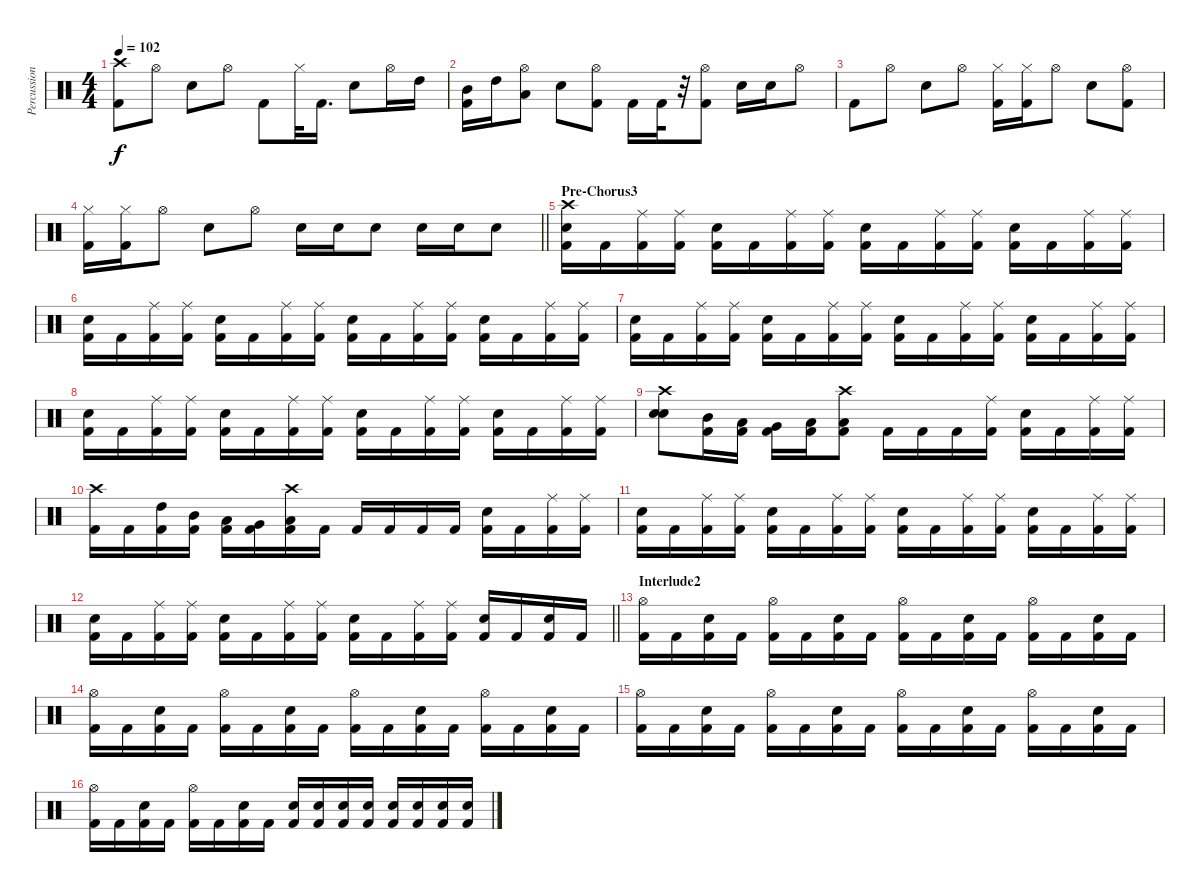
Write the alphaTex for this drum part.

\track ("Percussion" "Percussion") {instrument percussion}
\staff {score}
\articulation defaults
\ts (4 4)
\tempo 102
\clef neutral
\ks c
("Crash high (hit)" "Kick (hit) 2").8{dy f} "Hi-Hat (open)".8 "Snare (hit) 2".8 "Hi-Hat (open)".8 "Kick (hit) 2".8 "Hi-Hat (closed)".32 "Kick (hit) 2".16{d} "Snare (hit) 2".8 "Hi-Hat (open)".16 "High Tom (hit)".16 |
("Mid Tom (hit)" "Kick (hit) 2").16 "High Tom (hit)".16 ("Hi-Hat (open)" "Low Tom (hit)").8 "Snare (hit) 2".8 ("Hi-Hat (open)" "Kick (hit) 2").8 "Kick (hit) 2".16 "Kick (hit) 2".32 r.32 ("Hi-Hat (open)" "Kick (hit) 2").8 "Snare (hit) 2".16 "Snare (hit) 2".16 "Hi-Hat (open)".8 |
"Kick (hit) 2".8 "Hi-Hat (open)".8 "Snare (hit) 2".8 "Hi-Hat (open)".8 ("Hi-Hat (closed)" "Kick (hit) 2").16 ("Hi-Hat (closed)" "Kick (hit) 2").16 "Hi-Hat (open)".8 "Snare (hit) 2".8 ("Hi-Hat (open)" "Kick (hit) 2").8 |
\barLineRight lightlight
("Hi-Hat (closed)" "Kick (hit) 2").16 ("Hi-Hat (closed)" "Kick (hit) 2").16 "Hi-Hat (open)".8 "Snare (hit) 2".8 "Hi-Hat (open)".8 "Snare (hit) 2".16 "Snare (hit) 2".16 "Snare (hit) 2".8 "Snare (hit) 2".16 "Snare (hit) 2".16 "Snare (hit) 2".8 |
\section ("" "Pre-Chorus3")
("Crash high (hit)" "Snare (hit) 2" "Kick (hit) 2").16 "Kick (hit) 2".16 ("Ride (middle)" "Kick (hit) 2").16 ("Ride (middle)" "Kick (hit) 2").16 ("Snare (hit) 2" "Kick (hit) 2").16 "Kick (hit) 2".16 ("Ride (middle)" "Kick (hit) 2").16 ("Ride (middle)" "Kick (hit) 2").16 ("Snare (hit) 2" "Kick (hit) 2").16 "Kick (hit) 2".16 ("Ride (middle)" "Kick (hit) 2").16 ("Ride (middle)" "Kick (hit) 2").16 ("Snare (hit) 2" "Kick (hit) 2").16 "Kick (hit) 2".16 ("Ride (middle)" "Kick (hit) 2").16 ("Ride (middle)" "Kick (hit) 2").16 |
("Snare (hit) 2" "Kick (hit) 2").16 "Kick (hit) 2".16 ("Ride (middle)" "Kick (hit) 2").16 ("Ride (middle)" "Kick (hit) 2").16 ("Snare (hit) 2" "Kick (hit) 2").16 "Kick (hit) 2".16 ("Ride (middle)" "Kick (hit) 2").16 ("Ride (middle)" "Kick (hit) 2").16 ("Snare (hit) 2" "Kick (hit) 2").16 "Kick (hit) 2".16 ("Ride (middle)" "Kick (hit) 2").16 ("Ride (middle)" "Kick (hit) 2").16 ("Snare (hit) 2" "Kick (hit) 2").16 "Kick (hit) 2".16 ("Ride (middle)" "Kick (hit) 2").16 ("Ride (middle)" "Kick (hit) 2").16 |
("Snare (hit) 2" "Kick (hit) 2").16 "Kick (hit) 2".16 ("Ride (middle)" "Kick (hit) 2").16 ("Ride (middle)" "Kick (hit) 2").16 ("Snare (hit) 2" "Kick (hit) 2").16 "Kick (hit) 2".16 ("Ride (middle)" "Kick (hit) 2").16 ("Ride (middle)" "Kick (hit) 2").16 ("Snare (hit) 2" "Kick (hit) 2").16 "Kick (hit) 2".16 ("Ride (middle)" "Kick (hit) 2").16 ("Ride (middle)" "Kick (hit) 2").16 ("Snare (hit) 2" "Kick (hit) 2").16 "Kick (hit) 2".16 ("Ride (middle)" "Kick (hit) 2").16 ("Ride (middle)" "Kick (hit) 2").16 |
("Snare (hit) 2" "Kick (hit) 2").16 "Kick (hit) 2".16 ("Ride (middle)" "Kick (hit) 2").16 ("Ride (middle)" "Kick (hit) 2").16 ("Snare (hit) 2" "Kick (hit) 2").16 "Kick (hit) 2".16 ("Ride (middle)" "Kick (hit) 2").16 ("Ride (middle)" "Kick (hit) 2").16 ("Snare (hit) 2" "Kick (hit) 2").16 "Kick (hit) 2".16 ("Ride (middle)" "Kick (hit) 2").16 ("Ride (middle)" "Kick (hit) 2").16 ("Snare (hit) 2" "Kick (hit) 2").16 "Kick (hit) 2".16 ("Ride (middle)" "Kick (hit) 2").16 ("Ride (middle)" "Kick (hit) 2").16 |
("Crash high (hit)" "Snare (hit) 2" "Snare (hit) 2").8 ("Mid Tom (hit)" "Kick (hit) 2").16 ("Low Tom (hit)" "Kick (hit) 2").16 ("Very Low Tom (hit)" "Kick (hit) 2").16 ("Low Floor Tom (hit)" "Kick (hit) 2").16 ("Crash high (hit)" "Low Floor Tom (hit)" "Kick (hit) 2").8 "Kick (hit) 2".16 "Kick (hit) 2".16 "Kick (hit) 2".16 ("Ride (middle)" "Kick (hit) 2").16 ("Snare (hit) 2" "Kick (hit) 2").16 "Kick (hit) 2".16 ("Ride (middle)" "Kick (hit) 2").16 ("Ride (middle)" "Kick (hit) 2").16 |
("Crash high (hit)" "Kick (hit) 2").16 "Kick (hit) 2".16 ("High Tom (hit)" "Kick (hit) 2").16 ("Mid Tom (hit)" "Kick (hit) 2").16 ("Low Tom (hit)" "Kick (hit) 2").16 ("Very Low Tom (hit)" "Kick (hit) 2").16 ("Crash high (hit)" "Low Floor Tom (hit)" "Kick (hit) 2").16 "Kick (hit) 2".16 "Kick (hit) 2".16 "Kick (hit) 2".16 "Kick (hit) 2".16 "Kick (hit) 2".16 ("Snare (hit) 2" "Kick (hit) 2").16 "Kick (hit) 2".16 ("Ride (middle)" "Kick (hit) 2").16 ("Ride (middle)" "Kick (hit) 2").16 |
("Snare (hit) 2" "Kick (hit) 2").16 "Kick (hit) 2".16 ("Ride (middle)" "Kick (hit) 2").16 ("Ride (middle)" "Kick (hit) 2").16 ("Snare (hit) 2" "Kick (hit) 2").16 "Kick (hit) 2".16 ("Ride (middle)" "Kick (hit) 2").16 ("Ride (middle)" "Kick (hit) 2").16 ("Snare (hit) 2" "Kick (hit) 2").16 "Kick (hit) 2".16 ("Ride (middle)" "Kick (hit) 2").16 ("Ride (middle)" "Kick (hit) 2").16 ("Snare (hit) 2" "Kick (hit) 2").16 "Kick (hit) 2".16 ("Ride (middle)" "Kick (hit) 2").16 ("Ride (middle)" "Kick (hit) 2").16 |
\barLineRight lightlight
("Snare (hit) 2" "Kick (hit) 2").16 "Kick (hit) 2".16 ("Ride (middle)" "Kick (hit) 2").16 ("Ride (middle)" "Kick (hit) 2").16 ("Snare (hit) 2" "Kick (hit) 2").16 "Kick (hit) 2".16 ("Ride (middle)" "Kick (hit) 2").16 ("Ride (middle)" "Kick (hit) 2").16 ("Snare (hit) 2" "Kick (hit) 2").16 "Kick (hit) 2".16 ("Ride (middle)" "Kick (hit) 2").16 ("Ride (middle)" "Kick (hit) 2").16 ("Snare (hit) 2" "Kick (hit) 2").16 "Kick (hit) 2".16 ("Snare (hit) 2" "Kick (hit) 2").16 "Kick (hit) 2".16 |
\section ("" "Interlude2")
("Hi-Hat (open)" "Kick (hit) 2").16 "Kick (hit) 2".16 ("Snare (hit) 2" "Kick (hit) 2").16 "Kick (hit) 2".16 ("Hi-Hat (open)" "Kick (hit) 2").16 "Kick (hit) 2".16 ("Snare (hit) 2" "Kick (hit) 2").16 "Kick (hit) 2".16 ("Hi-Hat (open)" "Kick (hit) 2").16 "Kick (hit) 2".16 ("Snare (hit) 2" "Kick (hit) 2").16 "Kick (hit) 2".16 ("Hi-Hat (open)" "Kick (hit) 2").16 "Kick (hit) 2".16 ("Snare (hit) 2" "Kick (hit) 2").16 "Kick (hit) 2".16 |
("Hi-Hat (open)" "Kick (hit) 2").16 "Kick (hit) 2".16 ("Snare (hit) 2" "Kick (hit) 2").16 "Kick (hit) 2".16 ("Hi-Hat (open)" "Kick (hit) 2").16 "Kick (hit) 2".16 ("Snare (hit) 2" "Kick (hit) 2").16 "Kick (hit) 2".16 ("Hi-Hat (open)" "Kick (hit) 2").16 "Kick (hit) 2".16 ("Snare (hit) 2" "Kick (hit) 2").16 "Kick (hit) 2".16 ("Hi-Hat (open)" "Kick (hit) 2").16 "Kick (hit) 2".16 ("Snare (hit) 2" "Kick (hit) 2").16 "Kick (hit) 2".16 |
("Hi-Hat (open)" "Kick (hit) 2").16 "Kick (hit) 2".16 ("Snare (hit) 2" "Kick (hit) 2").16 "Kick (hit) 2".16 ("Hi-Hat (open)" "Kick (hit) 2").16 "Kick (hit) 2".16 ("Snare (hit) 2" "Kick (hit) 2").16 "Kick (hit) 2".16 ("Hi-Hat (open)" "Kick (hit) 2").16 "Kick (hit) 2".16 ("Snare (hit) 2" "Kick (hit) 2").16 "Kick (hit) 2".16 ("Hi-Hat (open)" "Kick (hit) 2").16 "Kick (hit) 2".16 ("Snare (hit) 2" "Kick (hit) 2").16 "Kick (hit) 2".16 |
("Hi-Hat (open)" "Kick (hit) 2").16 "Kick (hit) 2".16 ("Snare (hit) 2" "Kick (hit) 2").16 "Kick (hit) 2".16 ("Hi-Hat (open)" "Kick (hit) 2").16 "Kick (hit) 2".16 ("Snare (hit) 2" "Kick (hit) 2").16 "Kick (hit) 2".16 ("Snare (hit) 2" "Kick (hit) 2").16 ("Snare (hit) 2" "Kick (hit) 2").16 ("Snare (hit) 2" "Kick (hit) 2").16 ("Snare (hit) 2" "Kick (hit) 2").16 ("Snare (hit) 2" "Kick (hit) 2").16 ("Snare (hit) 2" "Kick (hit) 2").16 ("Snare (hit) 2" "Kick (hit) 2").16 ("Snare (hit) 2" "Kick (hit) 2").16
